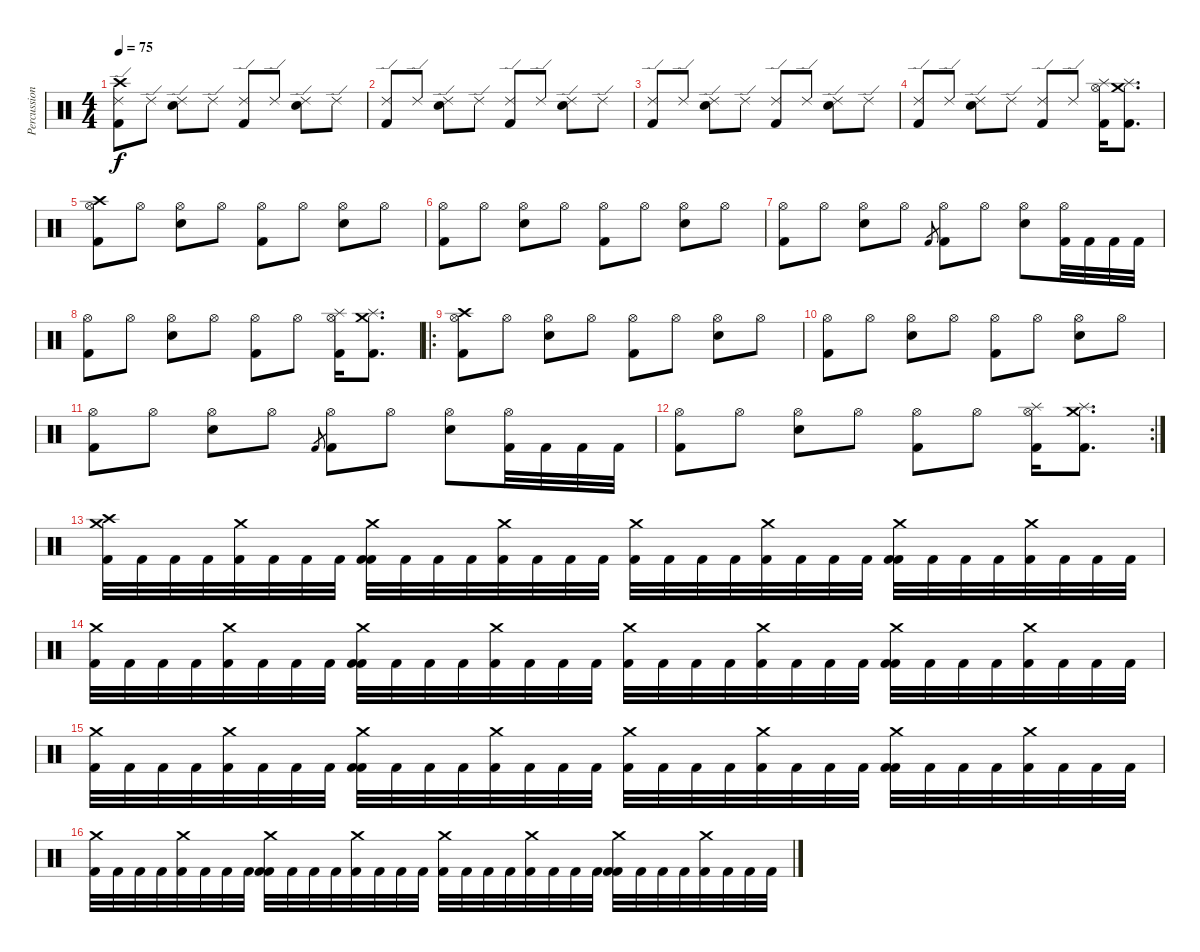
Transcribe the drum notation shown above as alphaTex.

\track ("Percussions" "Percussion") {instrument percussion}
\staff {score}
\articulation defaults
\ts (4 4)
\tempo 75
\clef neutral
\ks c
("Crash high (hit)" "Ride (edge) 2" "Kick (hit) 2").8{dy f} "Ride (edge) 2".8 ("Ride (edge) 2" "Snare (hit) 2").8 "Ride (edge) 2".8 ("Ride (edge) 2" "Kick (hit) 2").8 "Ride (edge) 2".8 ("Ride (edge) 2" "Snare (hit) 2").8 "Ride (edge) 2".8 |
("Ride (edge) 2" "Kick (hit) 2").8 "Ride (edge) 2".8 ("Ride (edge) 2" "Snare (hit) 2").8 "Ride (edge) 2".8 ("Ride (edge) 2" "Kick (hit) 2").8 "Ride (edge) 2".8 ("Ride (edge) 2" "Snare (hit) 2").8 "Ride (edge) 2".8 |
("Ride (edge) 2" "Kick (hit) 2").8 "Ride (edge) 2".8 ("Ride (edge) 2" "Snare (hit) 2").8 "Ride (edge) 2".8 ("Ride (edge) 2" "Kick (hit) 2").8 "Ride (edge) 2".8 ("Ride (edge) 2" "Snare (hit) 2").8 "Ride (edge) 2".8 |
("Ride (edge) 2" "Kick (hit) 2").8 "Ride (edge) 2".8 ("Ride (edge) 2" "Snare (hit) 2").8 "Ride (edge) 2".8 ("Ride (edge) 2" "Kick (hit) 2").8 "Ride (edge) 2".8 ("Hi-Hat (open)" "Splash (hit)" "Kick (hit) 2").16 ("Crash medium (hit)" "Splash (hit)" "Kick (hit) 2").8{d} |
("Crash high (hit)" "Hi-Hat (open)" "Kick (hit) 2").8 "Hi-Hat (open)".8 ("Hi-Hat (open)" "Snare (hit) 2").8 "Hi-Hat (open)".8 ("Hi-Hat (open)" "Kick (hit) 2").8 "Hi-Hat (open)".8 ("Hi-Hat (open)" "Snare (hit) 2").8 "Hi-Hat (open)".8 |
("Hi-Hat (open)" "Kick (hit) 2").8 "Hi-Hat (open)".8 ("Hi-Hat (open)" "Snare (hit) 2").8 "Hi-Hat (open)".8 ("Hi-Hat (open)" "Kick (hit) 2").8 "Hi-Hat (open)".8 ("Hi-Hat (open)" "Snare (hit) 2").8 "Hi-Hat (open)".8 |
("Hi-Hat (open)" "Kick (hit) 2").8 "Hi-Hat (open)".8 ("Hi-Hat (open)" "Snare (hit) 2").8 "Hi-Hat (open)".8 "Kick (hit) 2".8{gr} ("Hi-Hat (open)" "Kick (hit) 2").8 "Hi-Hat (open)".8 ("Hi-Hat (open)" "Snare (hit) 2").8 ("Hi-Hat (open)" "Kick (hit) 2").32 "Kick (hit) 2".32 "Kick (hit) 2".32 "Kick (hit) 2".32 |
("Hi-Hat (open)" "Kick (hit) 2").8 "Hi-Hat (open)".8 ("Hi-Hat (open)" "Snare (hit) 2").8 "Hi-Hat (open)".8 ("Hi-Hat (open)" "Kick (hit) 2").8 "Hi-Hat (open)".8 ("Hi-Hat (open)" "Splash (hit)" "Kick (hit) 2").16 ("Crash medium (hit)" "Splash (hit)" "Kick (hit) 2").8{d} |
\ro
("Crash high (hit)" "Hi-Hat (open)" "Kick (hit) 2").8 "Hi-Hat (open)".8 ("Hi-Hat (open)" "Snare (hit) 2").8 "Hi-Hat (open)".8 ("Hi-Hat (open)" "Kick (hit) 2").8 "Hi-Hat (open)".8 ("Hi-Hat (open)" "Snare (hit) 2").8 "Hi-Hat (open)".8 |
("Hi-Hat (open)" "Kick (hit) 2").8 "Hi-Hat (open)".8 ("Hi-Hat (open)" "Snare (hit) 2").8 "Hi-Hat (open)".8 ("Hi-Hat (open)" "Kick (hit) 2").8 "Hi-Hat (open)".8 ("Hi-Hat (open)" "Snare (hit) 2").8 "Hi-Hat (open)".8 |
("Hi-Hat (open)" "Kick (hit) 2").8 "Hi-Hat (open)".8 ("Hi-Hat (open)" "Snare (hit) 2").8 "Hi-Hat (open)".8 "Kick (hit) 2".8{gr} ("Hi-Hat (open)" "Kick (hit) 2").8 "Hi-Hat (open)".8 ("Hi-Hat (open)" "Snare (hit) 2").8 ("Hi-Hat (open)" "Kick (hit) 2").32 "Kick (hit) 2".32 "Kick (hit) 2".32 "Kick (hit) 2".32 |
\rc 2
("Hi-Hat (open)" "Kick (hit) 2").8 "Hi-Hat (open)".8 ("Hi-Hat (open)" "Snare (hit) 2").8 "Hi-Hat (open)".8 ("Hi-Hat (open)" "Kick (hit) 2").8 "Hi-Hat (open)".8 ("Hi-Hat (open)" "Splash (hit)" "Kick (hit) 2").16 ("Crash medium (hit)" "Splash (hit)" "Kick (hit) 2").8{d} |
("Crash high (hit)" "Crash medium (hit)" "Kick (hit) 2").32 "Kick (hit) 2".32 "Kick (hit) 2".32 "Kick (hit) 2".32 ("Crash medium (hit)" "Kick (hit) 2").32 "Kick (hit) 2".32 "Kick (hit) 2".32 "Kick (hit) 2".32 ("Crash medium (hit)" "Kick (hit) 2" "Kick (hit) 2").32 "Kick (hit) 2".32 "Kick (hit) 2".32 "Kick (hit) 2".32 ("Crash medium (hit)" "Kick (hit) 2").32 "Kick (hit) 2".32 "Kick (hit) 2".32 "Kick (hit) 2".32 ("Crash medium (hit)" "Kick (hit) 2").32 "Kick (hit) 2".32 "Kick (hit) 2".32 "Kick (hit) 2".32 ("Crash medium (hit)" "Kick (hit) 2").32 "Kick (hit) 2".32 "Kick (hit) 2".32 "Kick (hit) 2".32 ("Crash medium (hit)" "Kick (hit) 2" "Kick (hit) 2").32 "Kick (hit) 2".32 "Kick (hit) 2".32 "Kick (hit) 2".32 ("Crash medium (hit)" "Kick (hit) 2").32 "Kick (hit) 2".32 "Kick (hit) 2".32 "Kick (hit) 2".32 |
("Crash medium (hit)" "Kick (hit) 2").32 "Kick (hit) 2".32 "Kick (hit) 2".32 "Kick (hit) 2".32 ("Crash medium (hit)" "Kick (hit) 2").32 "Kick (hit) 2".32 "Kick (hit) 2".32 "Kick (hit) 2".32 ("Crash medium (hit)" "Kick (hit) 2" "Kick (hit) 2").32 "Kick (hit) 2".32 "Kick (hit) 2".32 "Kick (hit) 2".32 ("Crash medium (hit)" "Kick (hit) 2").32 "Kick (hit) 2".32 "Kick (hit) 2".32 "Kick (hit) 2".32 ("Crash medium (hit)" "Kick (hit) 2").32 "Kick (hit) 2".32 "Kick (hit) 2".32 "Kick (hit) 2".32 ("Crash medium (hit)" "Kick (hit) 2").32 "Kick (hit) 2".32 "Kick (hit) 2".32 "Kick (hit) 2".32 ("Crash medium (hit)" "Kick (hit) 2" "Kick (hit) 2").32 "Kick (hit) 2".32 "Kick (hit) 2".32 "Kick (hit) 2".32 ("Crash medium (hit)" "Kick (hit) 2").32 "Kick (hit) 2".32 "Kick (hit) 2".32 "Kick (hit) 2".32 |
("Crash medium (hit)" "Kick (hit) 2").32 "Kick (hit) 2".32 "Kick (hit) 2".32 "Kick (hit) 2".32 ("Crash medium (hit)" "Kick (hit) 2").32 "Kick (hit) 2".32 "Kick (hit) 2".32 "Kick (hit) 2".32 ("Crash medium (hit)" "Kick (hit) 2" "Kick (hit) 2").32 "Kick (hit) 2".32 "Kick (hit) 2".32 "Kick (hit) 2".32 ("Crash medium (hit)" "Kick (hit) 2").32 "Kick (hit) 2".32 "Kick (hit) 2".32 "Kick (hit) 2".32 ("Crash medium (hit)" "Kick (hit) 2").32 "Kick (hit) 2".32 "Kick (hit) 2".32 "Kick (hit) 2".32 ("Crash medium (hit)" "Kick (hit) 2").32 "Kick (hit) 2".32 "Kick (hit) 2".32 "Kick (hit) 2".32 ("Crash medium (hit)" "Kick (hit) 2" "Kick (hit) 2").32 "Kick (hit) 2".32 "Kick (hit) 2".32 "Kick (hit) 2".32 ("Crash medium (hit)" "Kick (hit) 2").32 "Kick (hit) 2".32 "Kick (hit) 2".32 "Kick (hit) 2".32 |
("Crash medium (hit)" "Kick (hit) 2").32 "Kick (hit) 2".32 "Kick (hit) 2".32 "Kick (hit) 2".32 ("Crash medium (hit)" "Kick (hit) 2").32 "Kick (hit) 2".32 "Kick (hit) 2".32 "Kick (hit) 2".32 ("Crash medium (hit)" "Kick (hit) 2" "Kick (hit) 2").32 "Kick (hit) 2".32 "Kick (hit) 2".32 "Kick (hit) 2".32 ("Crash medium (hit)" "Kick (hit) 2").32 "Kick (hit) 2".32 "Kick (hit) 2".32 "Kick (hit) 2".32 ("Crash medium (hit)" "Kick (hit) 2").32 "Kick (hit) 2".32 "Kick (hit) 2".32 "Kick (hit) 2".32 ("Crash medium (hit)" "Kick (hit) 2").32 "Kick (hit) 2".32 "Kick (hit) 2".32 "Kick (hit) 2".32 ("Crash medium (hit)" "Kick (hit) 2" "Kick (hit) 2").32 "Kick (hit) 2".32 "Kick (hit) 2".32 "Kick (hit) 2".32 ("Crash medium (hit)" "Kick (hit) 2").32 "Kick (hit) 2".32 "Kick (hit) 2".32 "Kick (hit) 2".32
